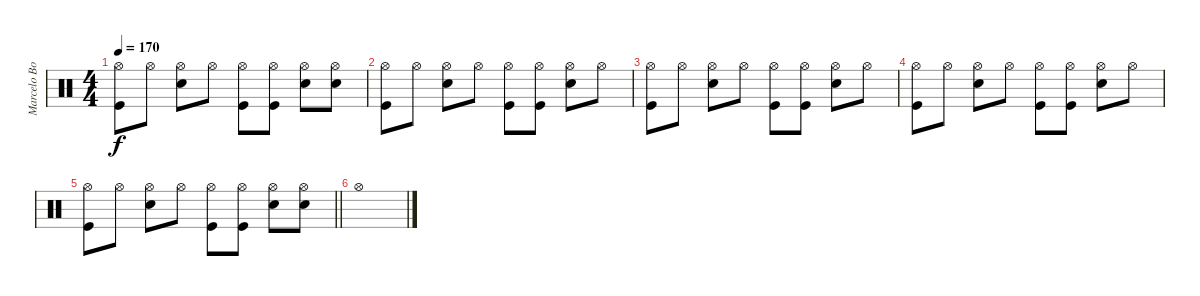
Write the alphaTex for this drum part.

\track ("Marcelo Bonfá" "Marcelo Bo") {instrument percussion}
\staff {score}
\articulation defaults
\ts (4 4)
\tempo 170
\clef neutral
\ks c
("Hi-Hat (open)" "Kick (hit)").8{dy f} "Hi-Hat (open)".8 ("Hi-Hat (open)" "Snare (hit) 2").8 "Hi-Hat (open)".8 ("Hi-Hat (open)" "Kick (hit)").8 ("Hi-Hat (open)" "Kick (hit)").8 ("Hi-Hat (open)" "Snare (hit) 2").8 ("Hi-Hat (open)" "Snare (hit) 2").8 |
("Hi-Hat (open)" "Kick (hit)").8 "Hi-Hat (open)".8 ("Hi-Hat (open)" "Snare (hit) 2").8 "Hi-Hat (open)".8 ("Hi-Hat (open)" "Kick (hit)").8 ("Hi-Hat (open)" "Kick (hit)").8 ("Hi-Hat (open)" "Snare (hit) 2").8 "Hi-Hat (open)".8 |
("Hi-Hat (open)" "Kick (hit)").8 "Hi-Hat (open)".8 ("Hi-Hat (open)" "Snare (hit) 2").8 "Hi-Hat (open)".8 ("Hi-Hat (open)" "Kick (hit)").8 ("Hi-Hat (open)" "Kick (hit)").8 ("Hi-Hat (open)" "Snare (hit) 2").8 "Hi-Hat (open)".8 |
("Hi-Hat (open)" "Kick (hit)").8 "Hi-Hat (open)".8 ("Hi-Hat (open)" "Snare (hit) 2").8 "Hi-Hat (open)".8 ("Hi-Hat (open)" "Kick (hit)").8 ("Hi-Hat (open)" "Kick (hit)").8 ("Hi-Hat (open)" "Snare (hit) 2").8 "Hi-Hat (open)".8 |
\barLineRight lightlight
("Hi-Hat (open)" "Kick (hit)").8 "Hi-Hat (open)".8 ("Hi-Hat (open)" "Snare (hit) 2").8 "Hi-Hat (open)".8 ("Hi-Hat (open)" "Kick (hit)").8 ("Hi-Hat (open)" "Kick (hit)").8 ("Hi-Hat (open)" "Snare (hit) 2").8 ("Hi-Hat (open)" "Snare (hit) 2").8 |
"Hi-Hat (open)".1
